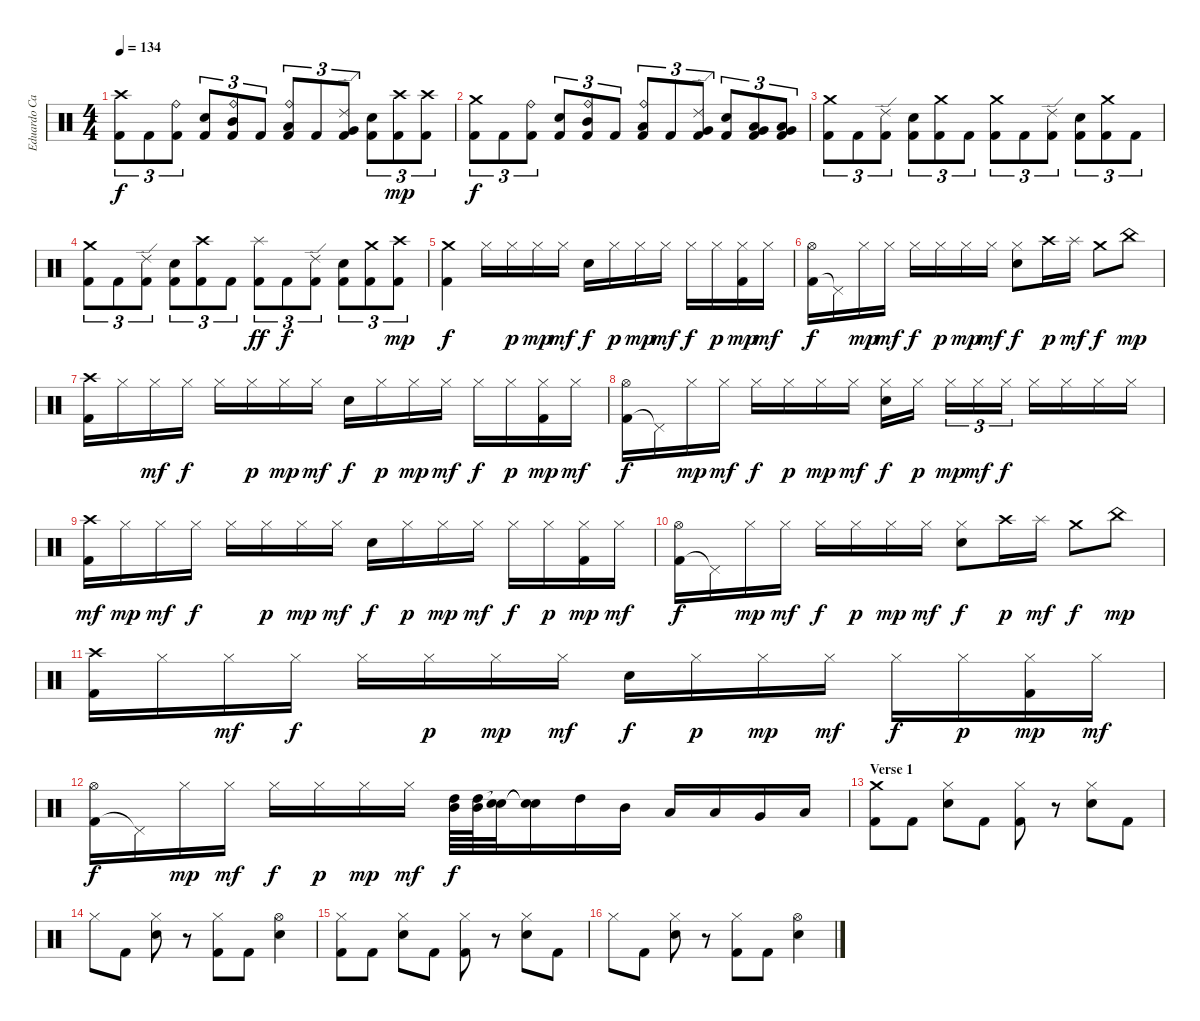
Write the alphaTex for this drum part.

\track ("Eduardo Carrillo" "Eduardo Ca") {instrument percussion}
\staff {score}
\articulation defaults
\ts (4 4)
\tempo 134
\clef neutral
\ks c
("Kick (hit) 2" "Crash high (hit)").8{tu (3 2) dy f} "Kick (hit) 2".8{tu (3 2)} ("Kick (hit) 2" "Ride (bell)").8{tu (3 2)} ("Kick (hit) 2" "Snare (hit) 2").8{tu (3 2)} ("Kick (hit) 2" "Ride (bell)" "Mid Tom (hit)").8{tu (3 2)} "Kick (hit) 2".8{tu (3 2)} ("Kick (hit) 2" "Ride (bell)" "Low Tom (hit)").8{tu (3 2)} "Kick (hit) 2".8{tu (3 2)} ("Kick (hit) 2" "Ride (edge) 2" "Very Low Tom (hit)").8{tu (3 2)} ("Kick (hit) 2" "Snare (hit) 2").8{tu (3 2)} ("Kick (hit) 2" "Crash high (hit)").8{tu (3 2) dy mp} ("Kick (hit) 2" "Crash high (hit)").8{tu (3 2)} |
("Kick (hit) 2" "Crash medium (hit)").8{tu (3 2) dy f} "Kick (hit) 2".8{tu (3 2)} ("Kick (hit) 2" "Ride (bell)").8{tu (3 2)} ("Kick (hit) 2" "Snare (hit) 2").8{tu (3 2)} ("Kick (hit) 2" "Ride (bell)" "Mid Tom (hit)").8{tu (3 2)} "Kick (hit) 2".8{tu (3 2)} ("Kick (hit) 2" "Ride (bell)" "Low Tom (hit)").8{tu (3 2)} "Kick (hit) 2".8{tu (3 2)} ("Kick (hit) 2" "Ride (edge) 2" "Very Low Tom (hit)").8{tu (3 2)} ("Kick (hit) 2" "Snare (hit) 2").8{tu (3 2)} ("Kick (hit) 2" "Low Tom (hit)" "Very Low Tom (hit)").8{tu (3 2)} ("Kick (hit) 2" "Low Tom (hit)" "Very Low Tom (hit)").8{tu (3 2)} |
("Kick (hit) 2" "Crash medium (hit)").8{tu (3 2)} "Kick (hit) 2".8{tu (3 2)} ("Kick (hit) 2" "Ride (edge) 2").8{tu (3 2)} ("Kick (hit) 2" "Snare (hit) 2").8{tu (3 2)} ("Kick (hit) 2" "Crash medium (hit)").8{tu (3 2)} "Kick (hit) 2".8{tu (3 2)} ("Kick (hit) 2" "Crash medium (hit)").8{tu (3 2)} "Kick (hit) 2".8{tu (3 2)} ("Kick (hit) 2" "Ride (edge) 2").8{tu (3 2)} ("Kick (hit) 2" "Snare (hit) 2").8{tu (3 2)} ("Kick (hit) 2" "Crash medium (hit)").8{tu (3 2)} "Kick (hit) 2".8{tu (3 2)} |
("Kick (hit) 2" "Crash medium (hit)").8{tu (3 2)} "Kick (hit) 2".8{tu (3 2)} ("Kick (hit) 2" "Ride (edge) 2").8{tu (3 2)} ("Kick (hit) 2" "Snare (hit) 2").8{tu (3 2)} ("Kick (hit) 2" "Crash high (hit)").8{tu (3 2)} "Kick (hit) 2".8{tu (3 2)} ("Kick (hit) 2" "Splash (hit)").8{tu (3 2) dy ff} "Kick (hit) 2".8{tu (3 2) dy f} ("Kick (hit) 2" "Ride (edge) 2").8{tu (3 2)} ("Kick (hit) 2" "Snare (hit) 2").8{tu (3 2)} ("Kick (hit) 2" "Crash medium (hit)").8{tu (3 2)} ("Kick (hit) 2" "Crash high (hit)").8{tu (3 2) dy mp} |
("Kick (hit) 2" "Crash medium (hit)").4{dy f} "Hi-Hat (closed)".16 "Hi-Hat (closed)".16{dy p} "Hi-Hat (closed)".16{dy mp} "Hi-Hat (closed)".16{dy mf} "Snare (hit) 2".16{dy f} "Hi-Hat (closed)".16{dy p} "Hi-Hat (closed)".16{dy mp} "Hi-Hat (closed)".16{dy mf} "Hi-Hat (closed)".16{dy f} "Hi-Hat (closed)".16{dy p} ("Kick (hit) 2" "Hi-Hat (closed)").16{dy mp} "Hi-Hat (closed)".16{dy mf} |
("Kick (hit) 2" "Hi-Hat (open)").16{dy f} "Pedal Hi-Hat (hit)"{t}.16 "Hi-Hat (closed)".16{dy mp} "Hi-Hat (closed)".16{dy mf} "Hi-Hat (closed)".16{dy f} "Hi-Hat (closed)".16{dy p} "Hi-Hat (closed)".16{dy mp} "Hi-Hat (closed)".16{dy mf} ("Hi-Hat (closed)" "Snare (hit) 2").8{dy f} "Crash high (hit)".16{dy p} "Splash (hit)".16{dy mf} "Crash medium (hit)".8{dy f} "China (hit)".8{dy mp} |
("Kick (hit) 2" "Crash high (hit)").16 "Hi-Hat (closed)".16 "Hi-Hat (closed)".16{dy mf} "Hi-Hat (closed)".16{dy f} "Hi-Hat (closed)".16 "Hi-Hat (closed)".16{dy p} "Hi-Hat (closed)".16{dy mp} "Hi-Hat (closed)".16{dy mf} "Snare (hit) 2".16{dy f} "Hi-Hat (closed)".16{dy p} "Hi-Hat (closed)".16{dy mp} "Hi-Hat (closed)".16{dy mf} "Hi-Hat (closed)".16{dy f} "Hi-Hat (closed)".16{dy p} ("Kick (hit) 2" "Hi-Hat (closed)").16{dy mp} "Hi-Hat (closed)".16{dy mf} |
("Kick (hit) 2" "Hi-Hat (open)").16{dy f} "Pedal Hi-Hat (hit)"{t}.16 "Hi-Hat (closed)".16{dy mp} "Hi-Hat (closed)".16{dy mf} "Hi-Hat (closed)".16{dy f} "Hi-Hat (closed)".16{dy p} "Hi-Hat (closed)".16{dy mp} "Hi-Hat (closed)".16{dy mf} ("Hi-Hat (closed)" "Snare (hit) 2").16{dy f} "Hi-Hat (closed)".16{dy p} "Hi-Hat (closed)".16{tu (3 2) dy mp} "Hi-Hat (closed)".16{tu (3 2) dy mf} "Hi-Hat (closed)".16{tu (3 2) dy f} "Hi-Hat (closed)".16 "Hi-Hat (closed)".16 "Hi-Hat (closed)".16 "Hi-Hat (closed)".16 |
("Kick (hit) 2" "Crash high (hit)").16{dy mf} "Hi-Hat (closed)".16{dy mp} "Hi-Hat (closed)".16{dy mf} "Hi-Hat (closed)".16{dy f} "Hi-Hat (closed)".16 "Hi-Hat (closed)".16{dy p} "Hi-Hat (closed)".16{dy mp} "Hi-Hat (closed)".16{dy mf} "Snare (hit) 2".16{dy f} "Hi-Hat (closed)".16{dy p} "Hi-Hat (closed)".16{dy mp} "Hi-Hat (closed)".16{dy mf} "Hi-Hat (closed)".16{dy f} "Hi-Hat (closed)".16{dy p} ("Kick (hit) 2" "Hi-Hat (closed)").16{dy mp} "Hi-Hat (closed)".16{dy mf} |
("Kick (hit) 2" "Hi-Hat (open)").16{dy f} "Pedal Hi-Hat (hit)"{t}.16 "Hi-Hat (closed)".16{dy mp} "Hi-Hat (closed)".16{dy mf} "Hi-Hat (closed)".16{dy f} "Hi-Hat (closed)".16{dy p} "Hi-Hat (closed)".16{dy mp} "Hi-Hat (closed)".16{dy mf} ("Hi-Hat (closed)" "Snare (hit) 2").8{dy f} "Crash high (hit)".16{dy p} "Splash (hit)".16{dy mf} "Crash medium (hit)".8{dy f} "China (hit)".8{dy mp} |
("Kick (hit) 2" "Crash high (hit)").16 "Hi-Hat (closed)".16 "Hi-Hat (closed)".16{dy mf} "Hi-Hat (closed)".16{dy f} "Hi-Hat (closed)".16 "Hi-Hat (closed)".16{dy p} "Hi-Hat (closed)".16{dy mp} "Hi-Hat (closed)".16{dy mf} "Snare (hit) 2".16{dy f} "Hi-Hat (closed)".16{dy p} "Hi-Hat (closed)".16{dy mp} "Hi-Hat (closed)".16{dy mf} "Hi-Hat (closed)".16{dy f} "Hi-Hat (closed)".16{dy p} ("Kick (hit) 2" "Hi-Hat (closed)").16{dy mp} "Hi-Hat (closed)".16{dy mf} |
("Kick (hit) 2" "Hi-Hat (open)").16{dy f} "Pedal Hi-Hat (hit)"{t}.16 "Hi-Hat (closed)".16{dy mp} "Hi-Hat (closed)".16{dy mf} "Hi-Hat (closed)".16{dy f} "Hi-Hat (closed)".16{dy p} "Hi-Hat (closed)".16{dy mp} "Hi-Hat (closed)".16{dy mf} ("High Tom (hit)" "Mid Tom (hit)").64{dy f} ("High Tom (hit)" "Mid Tom (hit)").64 ("Snare (hit)"{t} "Snare (hit)"{t}).32 ("Snare (hit)"{t} "Snare (hit)"{t}).16 "High Tom (hit)".16 "Mid Tom (hit)".16 "Low Tom (hit)".16 "Low Tom (hit)".16 "Very Low Tom (hit)".16 "Low Floor Tom (hit)".16 |
\section ("" "Verse 1")
("Kick (hit) 2" "Crash medium (hit)").8 "Kick (hit) 2".8 ("Hi-Hat (closed)" "Snare (hit) 2").8 "Kick (hit) 2".8 ("Kick (hit) 2" "Hi-Hat (closed)").8 r.8 ("Hi-Hat (closed)" "Snare (hit) 2").8 "Kick (hit) 2".8 |
"Hi-Hat (closed)".8 "Kick (hit) 2".8 ("Hi-Hat (closed)" "Snare (hit) 2").8 r.8 ("Kick (hit) 2" "Hi-Hat (closed)").8 "Kick (hit) 2".8 ("Hi-Hat (open)" "Snare (hit) 2").4 |
("Kick (hit) 2" "Hi-Hat (closed)").8 "Kick (hit) 2".8 ("Hi-Hat (closed)" "Snare (hit) 2").8 "Kick (hit) 2".8 ("Kick (hit) 2" "Hi-Hat (closed)").8 r.8 ("Hi-Hat (closed)" "Snare (hit) 2").8 "Kick (hit) 2".8 |
"Hi-Hat (closed)".8 "Kick (hit) 2".8 ("Hi-Hat (closed)" "Snare (hit) 2").8 r.8 ("Kick (hit) 2" "Hi-Hat (closed)").8 "Kick (hit) 2".8 ("Hi-Hat (open)" "Snare (hit) 2").4
